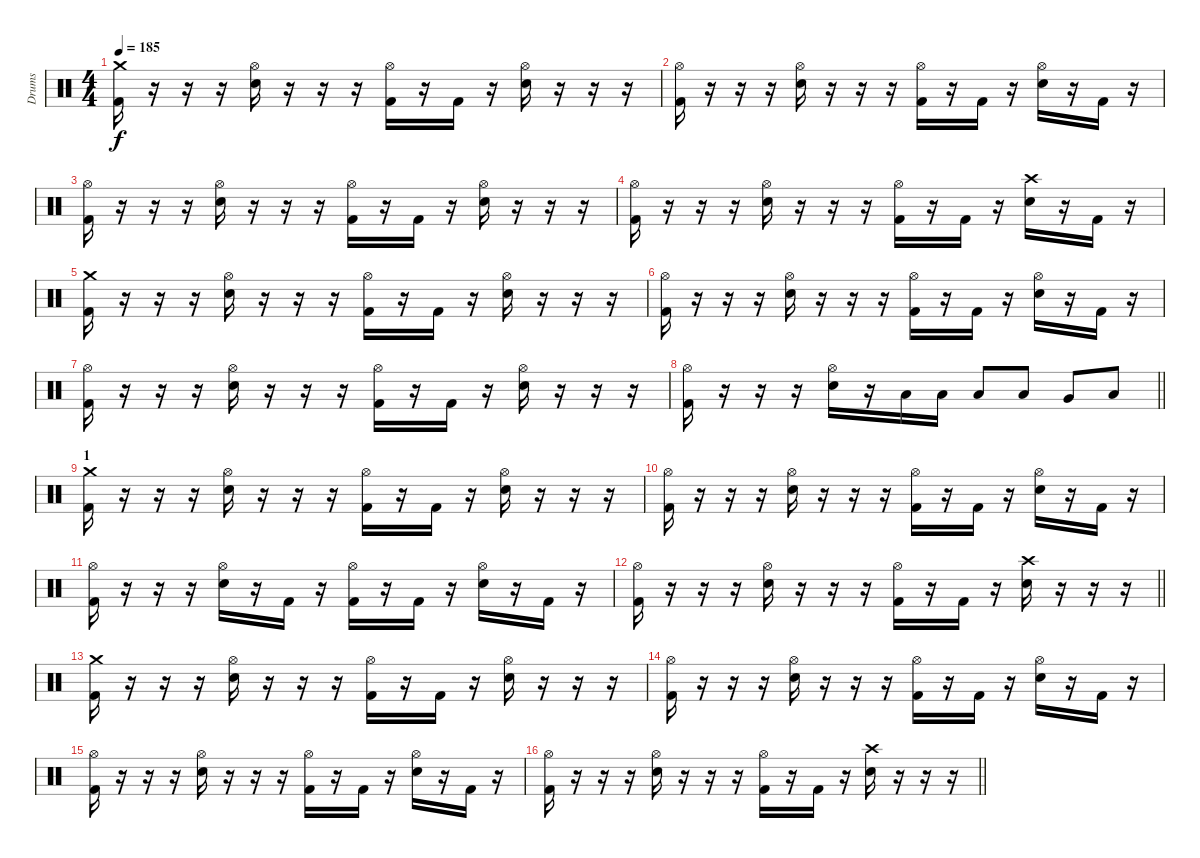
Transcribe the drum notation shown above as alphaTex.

\track ("Drums" "Drums") {instrument percussion}
\staff {score}
\articulation defaults
\ts (4 4)
\tempo 185
\clef neutral
\ks c
("Crash medium (hit)" "Kick (hit) 2").16{dy f} r.16 r.16 r.16 ("Hi-Hat (open)" "Electric Snare (hit)").16 r.16 r.16 r.16 ("Hi-Hat (open)" "Kick (hit) 2").16 r.16 "Kick (hit) 2".16 r.16 ("Hi-Hat (open)" "Electric Snare (hit)").16 r.16 r.16 r.16 |
("Hi-Hat (open)" "Kick (hit) 2").16 r.16 r.16 r.16 ("Hi-Hat (open)" "Electric Snare (hit)").16 r.16 r.16 r.16 ("Hi-Hat (open)" "Kick (hit) 2").16 r.16 "Kick (hit) 2".16 r.16 ("Hi-Hat (open)" "Electric Snare (hit)").16 r.16 "Kick (hit) 2".16 r.16 |
("Hi-Hat (open)" "Kick (hit) 2").16 r.16 r.16 r.16 ("Hi-Hat (open)" "Electric Snare (hit)").16 r.16 r.16 r.16 ("Hi-Hat (open)" "Kick (hit) 2").16 r.16 "Kick (hit) 2".16 r.16 ("Hi-Hat (open)" "Electric Snare (hit)").16 r.16 r.16 r.16 |
("Hi-Hat (open)" "Kick (hit) 2").16 r.16 r.16 r.16 ("Hi-Hat (open)" "Electric Snare (hit)").16 r.16 r.16 r.16 ("Hi-Hat (open)" "Kick (hit) 2").16 r.16 "Kick (hit) 2".16 r.16 ("Crash high (hit)" "Electric Snare (hit)").16 r.16 "Kick (hit) 2".16 r.16 |
("Crash medium (hit)" "Kick (hit) 2").16 r.16 r.16 r.16 ("Hi-Hat (open)" "Electric Snare (hit)").16 r.16 r.16 r.16 ("Hi-Hat (open)" "Kick (hit) 2").16 r.16 "Kick (hit) 2".16 r.16 ("Hi-Hat (open)" "Electric Snare (hit)").16 r.16 r.16 r.16 |
("Hi-Hat (open)" "Kick (hit) 2").16 r.16 r.16 r.16 ("Hi-Hat (open)" "Electric Snare (hit)").16 r.16 r.16 r.16 ("Hi-Hat (open)" "Kick (hit) 2").16 r.16 "Kick (hit) 2".16 r.16 ("Hi-Hat (open)" "Electric Snare (hit)").16 r.16 "Kick (hit) 2".16 r.16 |
("Hi-Hat (open)" "Kick (hit) 2").16 r.16 r.16 r.16 ("Hi-Hat (open)" "Electric Snare (hit)").16 r.16 r.16 r.16 ("Hi-Hat (open)" "Kick (hit) 2").16 r.16 "Kick (hit) 2".16 r.16 ("Hi-Hat (open)" "Electric Snare (hit)").16 r.16 r.16 r.16 |
\barLineRight lightlight
("Hi-Hat (open)" "Kick (hit) 2").16 r.16 r.16 r.16 ("Hi-Hat (open)" "Electric Snare (hit)").16 r.16 "Low Tom (hit)".16 "Low Tom (hit)".16 "Low Tom (hit)".8 "Low Tom (hit)".8 "Very Low Tom (hit)".8 "Low Floor Tom (hit)".8 |
\section ("" "1")
("Crash medium (hit)" "Kick (hit) 2").16 r.16 r.16 r.16 ("Hi-Hat (open)" "Electric Snare (hit)").16 r.16 r.16 r.16 ("Hi-Hat (open)" "Kick (hit) 2").16 r.16 "Kick (hit) 2".16 r.16 ("Hi-Hat (open)" "Electric Snare (hit)").16 r.16 r.16 r.16 |
("Hi-Hat (open)" "Kick (hit) 2").16 r.16 r.16 r.16 ("Hi-Hat (open)" "Electric Snare (hit)").16 r.16 r.16 r.16 ("Hi-Hat (open)" "Kick (hit) 2").16 r.16 "Kick (hit) 2".16 r.16 ("Hi-Hat (open)" "Electric Snare (hit)").16 r.16 "Kick (hit) 2".16 r.16 |
("Hi-Hat (open)" "Kick (hit) 2").16 r.16 r.16 r.16 ("Hi-Hat (open)" "Electric Snare (hit)").16 r.16 "Kick (hit) 2".16 r.16 ("Hi-Hat (open)" "Kick (hit) 2").16 r.16 "Kick (hit) 2".16 r.16 ("Hi-Hat (open)" "Electric Snare (hit)").16 r.16 "Kick (hit) 2".16 r.16 |
\barLineRight lightlight
("Hi-Hat (open)" "Kick (hit) 2").16 r.16 r.16 r.16 ("Hi-Hat (open)" "Electric Snare (hit)").16 r.16 r.16 r.16 ("Hi-Hat (open)" "Kick (hit) 2").16 r.16 "Kick (hit) 2".16 r.16 ("Crash high (hit)" "Electric Snare (hit)").16 r.16 r.16 r.16 |
\section ("" "")
("Crash medium (hit)" "Kick (hit) 2").16 r.16 r.16 r.16 ("Hi-Hat (open)" "Electric Snare (hit)").16 r.16 r.16 r.16 ("Hi-Hat (open)" "Kick (hit) 2").16 r.16 "Kick (hit) 2".16 r.16 ("Hi-Hat (open)" "Electric Snare (hit)").16 r.16 r.16 r.16 |
("Hi-Hat (open)" "Kick (hit) 2").16 r.16 r.16 r.16 ("Hi-Hat (open)" "Electric Snare (hit)").16 r.16 r.16 r.16 ("Hi-Hat (open)" "Kick (hit) 2").16 r.16 "Kick (hit) 2".16 r.16 ("Hi-Hat (open)" "Electric Snare (hit)").16 r.16 "Kick (hit) 2".16 r.16 |
("Hi-Hat (open)" "Kick (hit) 2").16 r.16 r.16 r.16 ("Hi-Hat (open)" "Electric Snare (hit)").16 r.16 r.16 r.16 ("Hi-Hat (open)" "Kick (hit) 2").16 r.16 "Kick (hit) 2".16 r.16 ("Hi-Hat (open)" "Electric Snare (hit)").16 r.16 "Kick (hit) 2".16 r.16 |
\barLineRight lightlight
("Hi-Hat (open)" "Kick (hit) 2").16 r.16 r.16 r.16 ("Hi-Hat (open)" "Electric Snare (hit)").16 r.16 r.16 r.16 ("Hi-Hat (open)" "Kick (hit) 2").16 r.16 "Kick (hit) 2".16 r.16 ("Crash high (hit)" "Electric Snare (hit)").16 r.16 r.16 r.16
